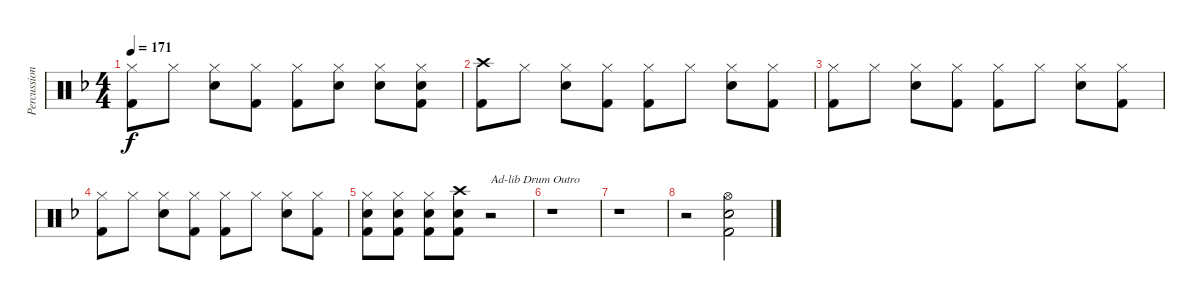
\track ("Percussion" "Percussion") {instrument percussion}
\staff {score}
\articulation defaults
\ts (4 4)
\tempo 171
\clef neutral
\ks f
("Hi-Hat (closed)" "Kick (hit) 2").8{dy f} "Hi-Hat (closed)".8 ("Hi-Hat (closed)" "Snare (hit) 2").8 ("Hi-Hat (closed)" "Kick (hit) 2").8 ("Hi-Hat (closed)" "Kick (hit) 2").8 ("Hi-Hat (closed)" "Snare (hit) 2").8 ("Hi-Hat (closed)" "Snare (hit) 2").8 ("Hi-Hat (closed)" "Snare (hit) 2" "Kick (hit) 2").8 |
("Crash high (hit)" "Kick (hit) 2").8 "Hi-Hat (closed)".8 ("Hi-Hat (closed)" "Snare (hit) 2").8 ("Hi-Hat (closed)" "Kick (hit) 2").8 ("Hi-Hat (closed)" "Kick (hit) 2").8 "Hi-Hat (closed)".8 ("Hi-Hat (closed)" "Snare (hit) 2").8 ("Hi-Hat (closed)" "Kick (hit) 2").8 |
("Hi-Hat (closed)" "Kick (hit) 2").8 "Hi-Hat (closed)".8 ("Hi-Hat (closed)" "Snare (hit) 2").8 ("Hi-Hat (closed)" "Kick (hit) 2").8 ("Hi-Hat (closed)" "Kick (hit) 2").8 "Hi-Hat (closed)".8 ("Hi-Hat (closed)" "Snare (hit) 2").8 ("Hi-Hat (closed)" "Kick (hit) 2").8 |
("Hi-Hat (closed)" "Kick (hit) 2").8 "Hi-Hat (closed)".8 ("Hi-Hat (closed)" "Snare (hit) 2").8 ("Hi-Hat (closed)" "Kick (hit) 2").8 ("Hi-Hat (closed)" "Kick (hit) 2").8 "Hi-Hat (closed)".8 ("Hi-Hat (closed)" "Snare (hit) 2").8 ("Hi-Hat (closed)" "Kick (hit) 2").8 |
("Hi-Hat (closed)" "Snare (hit) 2" "Kick (hit) 2").8 ("Hi-Hat (closed)" "Snare (hit) 2" "Kick (hit) 2").8 ("Hi-Hat (closed)" "Snare (hit) 2" "Kick (hit) 2").8 ("Crash high (hit)" "Snare (hit) 2" "Kick (hit) 2").8 r.2{txt "Ad-lib Drum Outro"} |
r.1 |
r.1 |
r.2 ("Hi-Hat (open)" "Snare (hit) 2" "Kick (hit) 2").2
